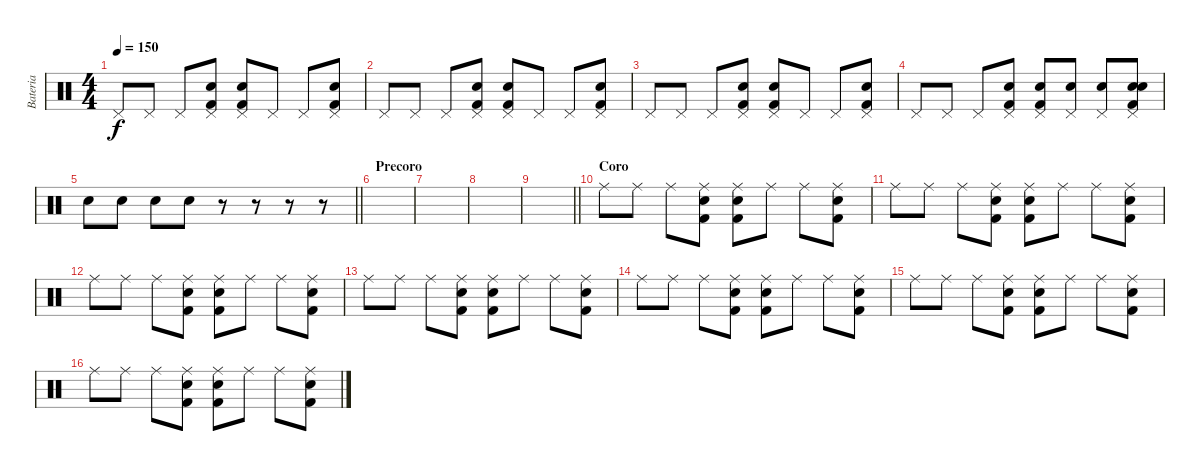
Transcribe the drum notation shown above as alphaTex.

\track ("Bateria" "Bateria") {instrument percussion}
\staff {score}
\articulation defaults
\ts (4 4)
\tempo 150
\clef neutral
\ks c "Pedal Hi-Hat (hit)".8{dy f} "Pedal Hi-Hat (hit)".8 "Pedal Hi-Hat (hit)".8
("Pedal Hi-Hat (hit)" "Electric Snare (hit)" "Kick (hit) 2").8 ("Pedal Hi-Hat (hit)" "Electric Snare (hit)" "Kick (hit) 2").8 "Pedal Hi-Hat (hit)".8 "Pedal Hi-Hat (hit)".8 ("Pedal Hi-Hat (hit)" "Electric Snare (hit)" "Kick (hit) 2").8 |
"Pedal Hi-Hat (hit)".8 "Pedal Hi-Hat (hit)".8 "Pedal Hi-Hat (hit)".8 ("Pedal Hi-Hat (hit)" "Electric Snare (hit)" "Kick (hit) 2").8 ("Pedal Hi-Hat (hit)" "Electric Snare (hit)" "Kick (hit) 2").8 "Pedal Hi-Hat (hit)".8 "Pedal Hi-Hat (hit)".8 ("Pedal Hi-Hat (hit)" "Electric Snare (hit)" "Kick (hit) 2").8 |
"Pedal Hi-Hat (hit)".8 "Pedal Hi-Hat (hit)".8 "Pedal Hi-Hat (hit)".8 ("Pedal Hi-Hat (hit)" "Electric Snare (hit)" "Kick (hit) 2").8 ("Pedal Hi-Hat (hit)" "Electric Snare (hit)" "Kick (hit) 2").8 "Pedal Hi-Hat (hit)".8 "Pedal Hi-Hat (hit)".8 ("Pedal Hi-Hat (hit)" "Electric Snare (hit)" "Kick (hit) 2").8 |
"Pedal Hi-Hat (hit)".8 "Pedal Hi-Hat (hit)".8 "Pedal Hi-Hat (hit)".8 ("Pedal Hi-Hat (hit)" "Electric Snare (hit)" "Kick (hit) 2").8 ("Pedal Hi-Hat (hit)" "Electric Snare (hit)" "Kick (hit) 2").8 ("Hand Clap (hit)" "Pedal Hi-Hat (hit)").8 ("Hand Clap (hit)" "Pedal Hi-Hat (hit)").8 ("Hand Clap (hit)" "Pedal Hi-Hat (hit)" "Electric Snare (hit)" "Kick (hit) 2").8 |
\barLineRight lightlight "Hand Clap (hit)".8 "Hand Clap (hit)".8 "Hand Clap (hit)".8 "Hand Clap (hit)".8
r.8 r.8 r.8 r.8 |
\section ("" "Precoro")
|
|
|
\barLineRight lightlight
|
\section ("" "Coro")
"Ride (middle)".8 "Ride (middle)".8 "Ride (middle)".8 ("Ride (middle)" "Electric Snare (hit)" "Kick (hit) 2").8 ("Ride (middle)" "Electric Snare (hit)" "Kick (hit) 2").8 "Ride (middle)".8 "Ride (middle)".8 ("Ride (middle)" "Electric Snare (hit)" "Kick (hit) 2").8 |
"Ride (middle)".8 "Ride (middle)".8 "Ride (middle)".8 ("Ride (middle)" "Electric Snare (hit)" "Kick (hit) 2").8 ("Ride (middle)" "Electric Snare (hit)" "Kick (hit) 2").8 "Ride (middle)".8 "Ride (middle)".8 ("Ride (middle)" "Electric Snare (hit)" "Kick (hit) 2").8 |
"Ride (middle)".8 "Ride (middle)".8 "Ride (middle)".8 ("Ride (middle)" "Electric Snare (hit)" "Kick (hit) 2").8 ("Ride (middle)" "Electric Snare (hit)" "Kick (hit) 2").8 "Ride (middle)".8 "Ride (middle)".8 ("Ride (middle)" "Electric Snare (hit)" "Kick (hit) 2").8 |
"Ride (middle)".8 "Ride (middle)".8 "Ride (middle)".8 ("Ride (middle)" "Electric Snare (hit)" "Kick (hit) 2").8 ("Ride (middle)" "Electric Snare (hit)" "Kick (hit) 2").8 "Ride (middle)".8 "Ride (middle)".8 ("Ride (middle)" "Electric Snare (hit)" "Kick (hit) 2").8 |
"Ride (middle)".8 "Ride (middle)".8 "Ride (middle)".8 ("Ride (middle)" "Electric Snare (hit)" "Kick (hit) 2").8 ("Ride (middle)" "Electric Snare (hit)" "Kick (hit) 2").8 "Ride (middle)".8 "Ride (middle)".8 ("Ride (middle)" "Electric Snare (hit)" "Kick (hit) 2").8 |
"Ride (middle)".8 "Ride (middle)".8 "Ride (middle)".8 ("Ride (middle)" "Electric Snare (hit)" "Kick (hit) 2").8 ("Ride (middle)" "Electric Snare (hit)" "Kick (hit) 2").8 "Ride (middle)".8 "Ride (middle)".8 ("Ride (middle)" "Electric Snare (hit)" "Kick (hit) 2").8 |
"Ride (middle)".8 "Ride (middle)".8 "Ride (middle)".8 ("Ride (middle)" "Electric Snare (hit)" "Kick (hit) 2").8 ("Ride (middle)" "Electric Snare (hit)" "Kick (hit) 2").8 "Ride (middle)".8 "Ride (middle)".8 ("Ride (middle)" "Electric Snare (hit)" "Kick (hit) 2").8
